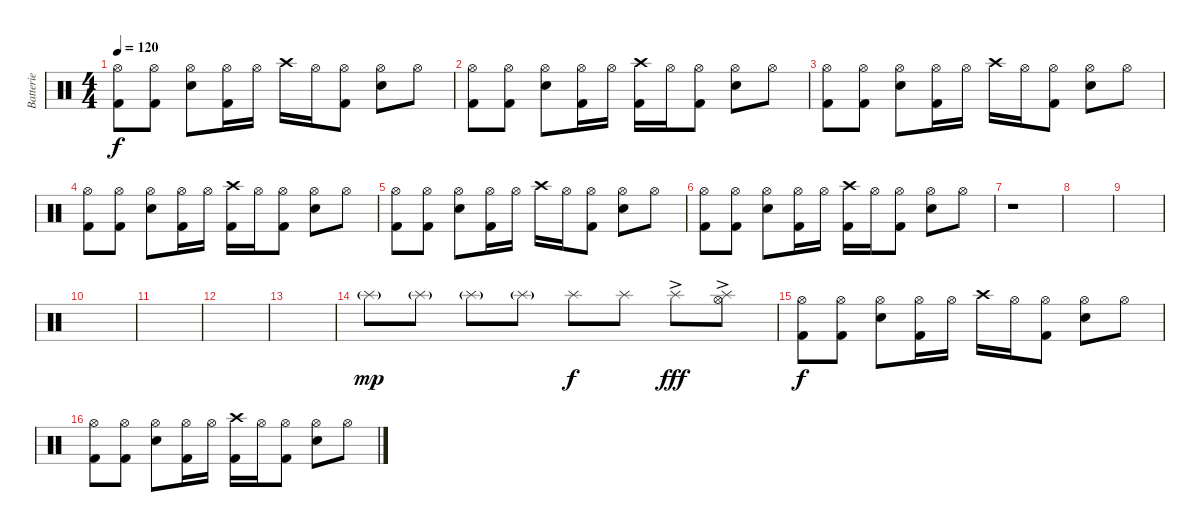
\track ("Batterie" "Batterie") {instrument percussion}
\staff {score}
\articulation defaults
\ts (4 4)
\tempo 120
\clef neutral
\ks c
("Hi-Hat (open)" "Kick (hit) 2").8{dy f} ("Hi-Hat (open)" "Kick (hit) 2").8 ("Hi-Hat (open)" "Snare (hit) 2").8 ("Hi-Hat (open)" "Kick (hit) 2").16 "Hi-Hat (open)".16 "Crash high (hit)".16 "Hi-Hat (open)".16 ("Hi-Hat (open)" "Kick (hit) 2").8 ("Hi-Hat (open)" "Snare (hit) 2").8 "Hi-Hat (open)".8 |
("Hi-Hat (open)" "Kick (hit) 2").8 ("Hi-Hat (open)" "Kick (hit) 2").8 ("Hi-Hat (open)" "Snare (hit) 2").8 ("Hi-Hat (open)" "Kick (hit) 2").16 "Hi-Hat (open)".16 ("Crash high (hit)" "Kick (hit) 2").16 "Hi-Hat (open)".16 ("Hi-Hat (open)" "Kick (hit) 2").8 ("Hi-Hat (open)" "Snare (hit) 2").8 "Hi-Hat (open)".8 |
("Hi-Hat (open)" "Kick (hit) 2").8 ("Hi-Hat (open)" "Kick (hit) 2").8 ("Hi-Hat (open)" "Snare (hit) 2").8 ("Hi-Hat (open)" "Kick (hit) 2").16 "Hi-Hat (open)".16 "Crash high (hit)".16 "Hi-Hat (open)".16 ("Hi-Hat (open)" "Kick (hit) 2").8 ("Hi-Hat (open)" "Snare (hit) 2").8 "Hi-Hat (open)".8 |
("Hi-Hat (open)" "Kick (hit) 2").8 ("Hi-Hat (open)" "Kick (hit) 2").8 ("Hi-Hat (open)" "Snare (hit) 2").8 ("Hi-Hat (open)" "Kick (hit) 2").16 "Hi-Hat (open)".16 ("Crash high (hit)" "Kick (hit) 2").16 "Hi-Hat (open)".16 ("Hi-Hat (open)" "Kick (hit) 2").8 ("Hi-Hat (open)" "Snare (hit) 2").8 "Hi-Hat (open)".8 |
("Hi-Hat (open)" "Kick (hit) 2").8 ("Hi-Hat (open)" "Kick (hit) 2").8 ("Hi-Hat (open)" "Snare (hit) 2").8 ("Hi-Hat (open)" "Kick (hit) 2").16 "Hi-Hat (open)".16 "Crash high (hit)".16 "Hi-Hat (open)".16 ("Hi-Hat (open)" "Kick (hit) 2").8 ("Hi-Hat (open)" "Snare (hit) 2").8 "Hi-Hat (open)".8 |
("Hi-Hat (open)" "Kick (hit) 2").8 ("Hi-Hat (open)" "Kick (hit) 2").8 ("Hi-Hat (open)" "Snare (hit) 2").8 ("Hi-Hat (open)" "Kick (hit) 2").16 "Hi-Hat (open)".16 ("Crash high (hit)" "Kick (hit) 2").16 "Hi-Hat (open)".16 ("Hi-Hat (open)" "Kick (hit) 2").8 ("Hi-Hat (open)" "Snare (hit) 2").8 "Hi-Hat (open)".8 |
r.1 |
|
|
|
|
|
|
"Splash (hit)"{g}.8{dy mp} "Splash (hit)"{g}.8 "Splash (hit)"{g}.8 "Splash (hit)"{g}.8 "Splash (hit)".8{dy f} "Splash (hit)".8 "Splash (hit)"{ac}.8{dy fff} ("Splash (hit)"{ac} "Hi-Hat (open)").8 |
("Hi-Hat (open)" "Kick (hit) 2").8{dy f} ("Hi-Hat (open)" "Kick (hit) 2").8 ("Hi-Hat (open)" "Snare (hit) 2").8 ("Hi-Hat (open)" "Kick (hit) 2").16 "Hi-Hat (open)".16 "Crash high (hit)".16 "Hi-Hat (open)".16 ("Hi-Hat (open)" "Kick (hit) 2").8 ("Hi-Hat (open)" "Snare (hit) 2").8 "Hi-Hat (open)".8 |
("Hi-Hat (open)" "Kick (hit) 2").8 ("Hi-Hat (open)" "Kick (hit) 2").8 ("Hi-Hat (open)" "Snare (hit) 2").8 ("Hi-Hat (open)" "Kick (hit) 2").16 "Hi-Hat (open)".16 ("Crash high (hit)" "Kick (hit) 2").16 "Hi-Hat (open)".16 ("Hi-Hat (open)" "Kick (hit) 2").8 ("Hi-Hat (open)" "Snare (hit) 2").8 "Hi-Hat (open)".8
